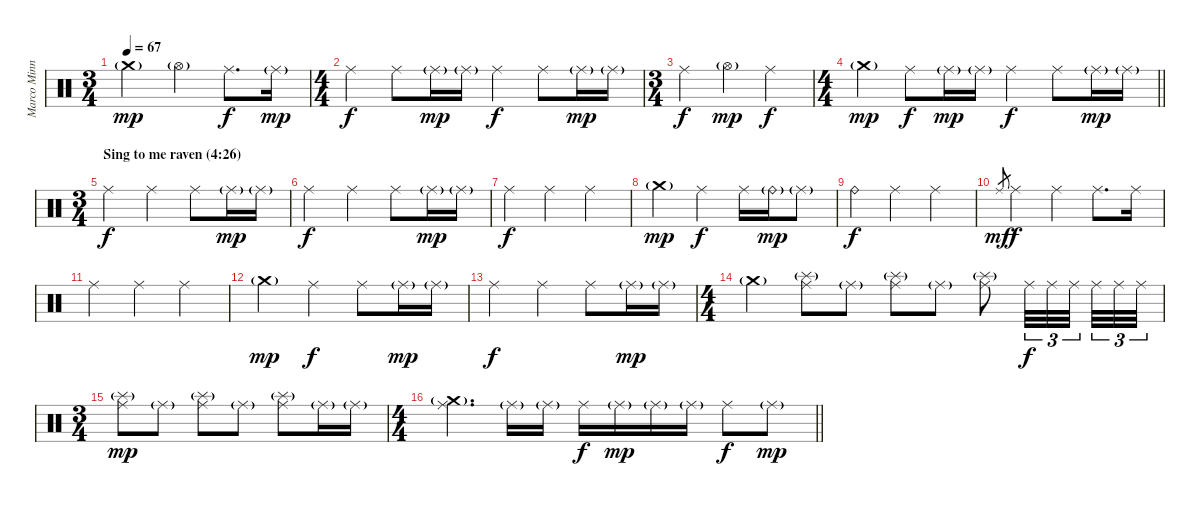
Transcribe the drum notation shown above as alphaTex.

\track ("Marco Minnemann" "Marco Minn") {instrument percussion}
\staff {score}
\articulation defaults
\ts (3 4)
\tempo 67
\clef neutral
\ks c "Crash medium (hit)"{g}.4{dy mp} "Hi-Hat (open)"{g}.4 "Ride (middle)".8{d dy f} "Ride (middle)"{g}.16{dy mp}
|
\ts (4 4)
"Ride (middle)".4{dy f} "Ride (middle)".8 "Ride (middle)"{g}.16{dy mp} "Ride (middle)"{g}.16 "Ride (middle)".4{dy f} "Ride (middle)".8 "Ride (middle)"{g}.16{dy mp} "Ride (middle)"{g}.16 |
\ts (3 4)
"Ride (middle)".4{dy f} "Hi-Hat (open)"{g}.4{dy mp} "Ride (middle)".4{dy f} |
\ts (4 4)
\barLineRight lightlight "Crash medium (hit)"{g}.4{dy mp} "Ride (middle)".8{dy f} "Ride (middle)"{g}.16{dy mp} "Ride (middle)"{g}.16 "Ride (middle)".4{dy f} "Ride (middle)".8 "Ride (middle)"{g}.16{dy mp} "Ride (middle)"{g}.16
|
\ts (3 4)
\section ("" "Sing to me raven (4:26)")
"Ride (middle)".4{dy f} "Ride (middle)".4 "Ride (middle)".8 "Ride (middle)"{g}.16{dy mp} "Ride (middle)"{g}.16 |
"Ride (middle)".4{dy f} "Ride (middle)".4 "Ride (middle)".8 "Ride (middle)"{g}.16{dy mp} "Ride (middle)"{g}.16 |
"Ride (middle)".4{dy f} "Ride (middle)".4 "Ride (middle)".4 |
"Crash medium (hit)"{g}.4{dy mp} "Ride (middle)".4{dy f} "Ride (middle)".16 "Ride (bell)"{g}.16{dy mp} "Ride (middle)"{g}.8 |
"Ride (bell)".4{dy f} "Ride (middle)".4 "Ride (middle)".4 |
"Ride (middle)".8{gr dy mf} "Ride (middle)".4{dy f} "Ride (middle)".4 "Ride (middle)".8{d} "Ride (middle)".16 |
"Ride (middle)".4 "Ride (middle)".4 "Ride (middle)".4 |
"Crash medium (hit)"{g}.4{dy mp} "Ride (middle)".4{dy f} "Ride (middle)".8 "Ride (middle)"{g}.16{dy mp} "Ride (middle)"{g}.16 |
"Ride (middle)".4{dy f} "Ride (middle)".4 "Ride (middle)".8 "Ride (middle)"{g}.16{dy mp} "Ride (middle)"{g}.16 |
\ts (4 4)
"Crash medium (hit)"{g}.4 ("Ride (middle)" "Splash (hit)"{g}).8 "Ride (middle)"{g}.8 ("Ride (middle)" "Splash (hit)"{g}).8 "Ride (middle)"{g}.8 ("Ride (middle)" "Splash (hit)"{g}).8 "Ride (middle)".32{tu (3 2) dy f} "Ride (middle)".32{tu (3 2)} "Ride (middle)".32{tu (3 2) beam splitsecondary} "Ride (middle)".32{tu (3 2)} "Ride (middle)".32{tu (3 2)} "Ride (middle)".32{tu (3 2)} |
\ts (3 4)
("Ride (middle)" "Splash (hit)"{g}).8{dy mp} "Ride (middle)"{g}.8 ("Ride (middle)" "Splash (hit)"{g}).8 "Ride (middle)"{g}.8 ("Ride (middle)" "Splash (hit)"{g}).8 "Ride (middle)"{g}.16 "Ride (middle)"{g}.16 |
\ts (4 4)
\barLineRight lightlight
("Ride (middle)" "Crash medium (hit)"{g}).4{d} "Ride (middle)"{g}.16 "Ride (middle)"{g}.16 "Ride (middle)".16{dy f} "Ride (middle)"{g}.16{dy mp} "Ride (middle)"{g}.16 "Ride (middle)"{g}.16 "Ride (middle)".8{dy f} "Ride (middle)"{g}.8{dy mp}
